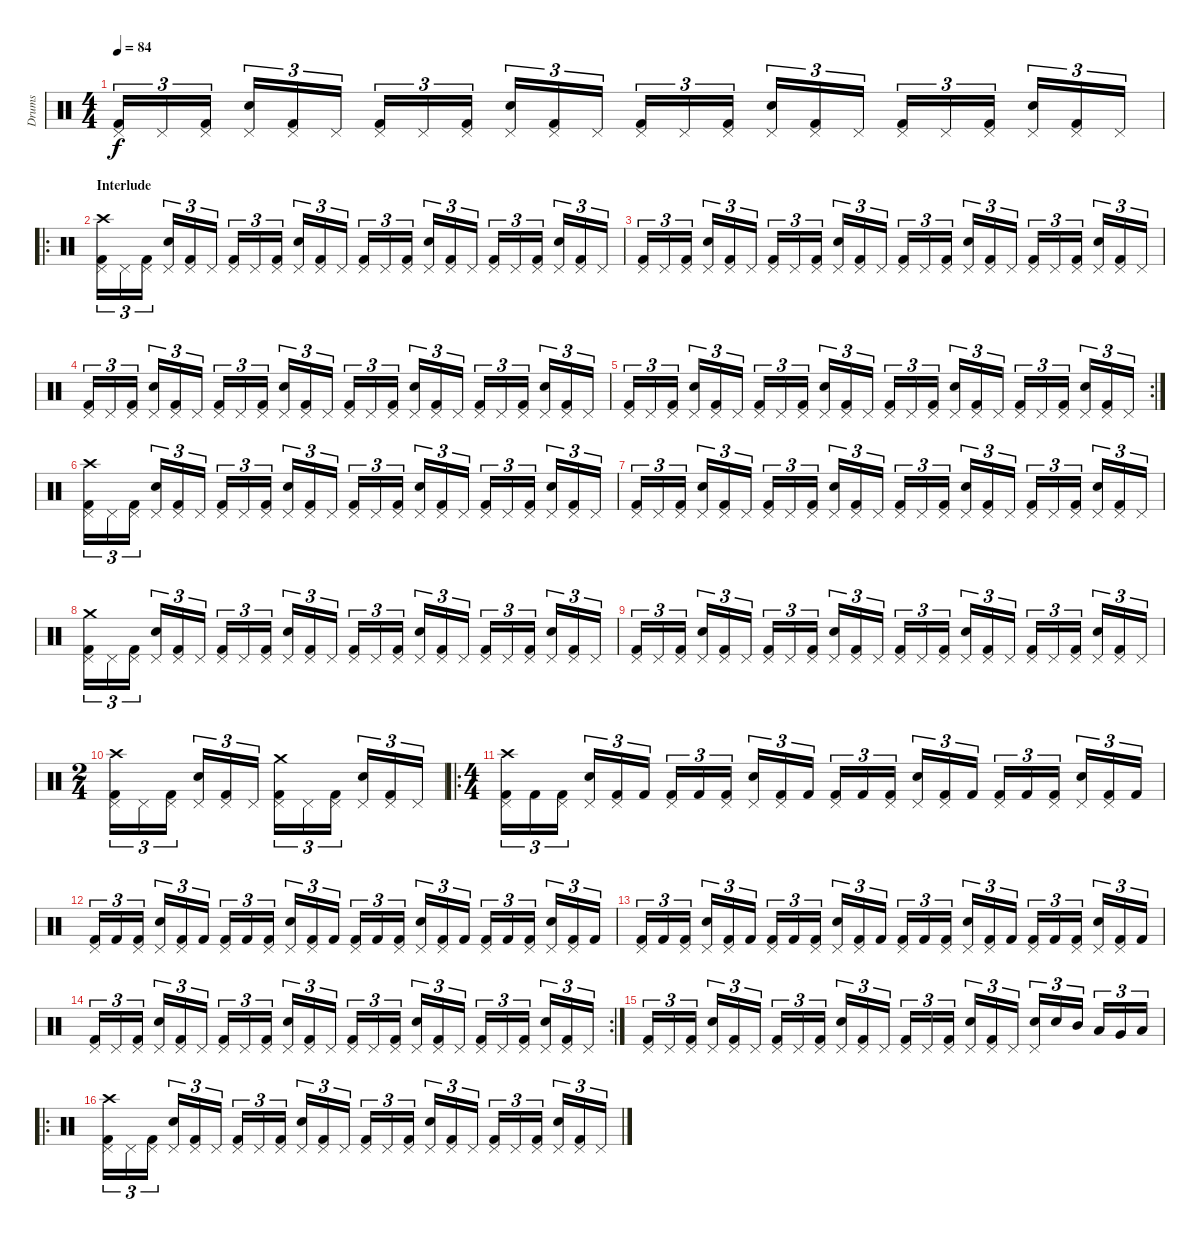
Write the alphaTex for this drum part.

\track ("Drums" "Drums") {instrument percussion}
\staff {score}
\articulation defaults
\ts (4 4)
\tempo 84
\clef neutral
\ks c
("Kick (hit) 2" "Pedal Hi-Hat (hit)").16{tu (3 2) dy f} "Pedal Hi-Hat (hit)".16{tu (3 2)} ("Kick (hit) 2" "Pedal Hi-Hat (hit)").16{tu (3 2)} ("Snare (hit) 2" "Pedal Hi-Hat (hit)").16{tu (3 2)} ("Kick (hit) 2" "Pedal Hi-Hat (hit)").16{tu (3 2)} "Pedal Hi-Hat (hit)".16{tu (3 2)} ("Kick (hit) 2" "Pedal Hi-Hat (hit)").16{tu (3 2)} "Pedal Hi-Hat (hit)".16{tu (3 2)} ("Kick (hit) 2" "Pedal Hi-Hat (hit)").16{tu (3 2)} ("Snare (hit) 2" "Pedal Hi-Hat (hit)").16{tu (3 2)} ("Kick (hit) 2" "Pedal Hi-Hat (hit)").16{tu (3 2)} "Pedal Hi-Hat (hit)".16{tu (3 2)} ("Kick (hit) 2" "Pedal Hi-Hat (hit)").16{tu (3 2)} "Pedal Hi-Hat (hit)".16{tu (3 2)} ("Kick (hit) 2" "Pedal Hi-Hat (hit)").16{tu (3 2)} ("Snare (hit) 2" "Pedal Hi-Hat (hit)").16{tu (3 2)} ("Kick (hit) 2" "Pedal Hi-Hat (hit)").16{tu (3 2)} "Pedal Hi-Hat (hit)".16{tu (3 2)} ("Kick (hit) 2" "Pedal Hi-Hat (hit)").16{tu (3 2)} "Pedal Hi-Hat (hit)".16{tu (3 2)} ("Kick (hit) 2" "Pedal Hi-Hat (hit)").16{tu (3 2)} ("Snare (hit) 2" "Pedal Hi-Hat (hit)").16{tu (3 2)} ("Kick (hit) 2" "Pedal Hi-Hat (hit)").16{tu (3 2)} "Pedal Hi-Hat (hit)".16{tu (3 2)} |
\ro
\section ("" "Interlude")
("Kick (hit) 2" "Pedal Hi-Hat (hit)" "Crash high (hit)").16{tu (3 2)} "Pedal Hi-Hat (hit)".16{tu (3 2)} ("Kick (hit) 2" "Pedal Hi-Hat (hit)").16{tu (3 2)} ("Snare (hit) 2" "Pedal Hi-Hat (hit)").16{tu (3 2)} ("Kick (hit) 2" "Pedal Hi-Hat (hit)").16{tu (3 2)} "Pedal Hi-Hat (hit)".16{tu (3 2)} ("Kick (hit) 2" "Pedal Hi-Hat (hit)").16{tu (3 2)} "Pedal Hi-Hat (hit)".16{tu (3 2)} ("Kick (hit) 2" "Pedal Hi-Hat (hit)").16{tu (3 2)} ("Snare (hit) 2" "Pedal Hi-Hat (hit)").16{tu (3 2)} ("Kick (hit) 2" "Pedal Hi-Hat (hit)").16{tu (3 2)} "Pedal Hi-Hat (hit)".16{tu (3 2)} ("Kick (hit) 2" "Pedal Hi-Hat (hit)").16{tu (3 2)} "Pedal Hi-Hat (hit)".16{tu (3 2)} ("Kick (hit) 2" "Pedal Hi-Hat (hit)").16{tu (3 2)} ("Snare (hit) 2" "Pedal Hi-Hat (hit)").16{tu (3 2)} ("Kick (hit) 2" "Pedal Hi-Hat (hit)").16{tu (3 2)} "Pedal Hi-Hat (hit)".16{tu (3 2)} ("Kick (hit) 2" "Pedal Hi-Hat (hit)").16{tu (3 2)} "Pedal Hi-Hat (hit)".16{tu (3 2)} ("Kick (hit) 2" "Pedal Hi-Hat (hit)").16{tu (3 2)} ("Snare (hit) 2" "Pedal Hi-Hat (hit)").16{tu (3 2)} ("Kick (hit) 2" "Pedal Hi-Hat (hit)").16{tu (3 2)} "Pedal Hi-Hat (hit)".16{tu (3 2)} |
("Kick (hit) 2" "Pedal Hi-Hat (hit)").16{tu (3 2)} "Pedal Hi-Hat (hit)".16{tu (3 2)} ("Kick (hit) 2" "Pedal Hi-Hat (hit)").16{tu (3 2)} ("Snare (hit) 2" "Pedal Hi-Hat (hit)").16{tu (3 2)} ("Kick (hit) 2" "Pedal Hi-Hat (hit)").16{tu (3 2)} "Pedal Hi-Hat (hit)".16{tu (3 2)} ("Kick (hit) 2" "Pedal Hi-Hat (hit)").16{tu (3 2)} "Pedal Hi-Hat (hit)".16{tu (3 2)} ("Kick (hit) 2" "Pedal Hi-Hat (hit)").16{tu (3 2)} ("Snare (hit) 2" "Pedal Hi-Hat (hit)").16{tu (3 2)} ("Kick (hit) 2" "Pedal Hi-Hat (hit)").16{tu (3 2)} "Pedal Hi-Hat (hit)".16{tu (3 2)} ("Kick (hit) 2" "Pedal Hi-Hat (hit)").16{tu (3 2)} "Pedal Hi-Hat (hit)".16{tu (3 2)} ("Kick (hit) 2" "Pedal Hi-Hat (hit)").16{tu (3 2)} ("Snare (hit) 2" "Pedal Hi-Hat (hit)").16{tu (3 2)} ("Kick (hit) 2" "Pedal Hi-Hat (hit)").16{tu (3 2)} "Pedal Hi-Hat (hit)".16{tu (3 2)} ("Kick (hit) 2" "Pedal Hi-Hat (hit)").16{tu (3 2)} "Pedal Hi-Hat (hit)".16{tu (3 2)} ("Kick (hit) 2" "Pedal Hi-Hat (hit)").16{tu (3 2)} ("Snare (hit) 2" "Pedal Hi-Hat (hit)").16{tu (3 2)} ("Kick (hit) 2" "Pedal Hi-Hat (hit)").16{tu (3 2)} "Pedal Hi-Hat (hit)".16{tu (3 2)} |
("Kick (hit) 2" "Pedal Hi-Hat (hit)").16{tu (3 2)} "Pedal Hi-Hat (hit)".16{tu (3 2)} ("Kick (hit) 2" "Pedal Hi-Hat (hit)").16{tu (3 2)} ("Snare (hit) 2" "Pedal Hi-Hat (hit)").16{tu (3 2)} ("Kick (hit) 2" "Pedal Hi-Hat (hit)").16{tu (3 2)} "Pedal Hi-Hat (hit)".16{tu (3 2)} ("Kick (hit) 2" "Pedal Hi-Hat (hit)").16{tu (3 2)} "Pedal Hi-Hat (hit)".16{tu (3 2)} ("Kick (hit) 2" "Pedal Hi-Hat (hit)").16{tu (3 2)} ("Snare (hit) 2" "Pedal Hi-Hat (hit)").16{tu (3 2)} ("Kick (hit) 2" "Pedal Hi-Hat (hit)").16{tu (3 2)} "Pedal Hi-Hat (hit)".16{tu (3 2)} ("Kick (hit) 2" "Pedal Hi-Hat (hit)").16{tu (3 2)} "Pedal Hi-Hat (hit)".16{tu (3 2)} ("Kick (hit) 2" "Pedal Hi-Hat (hit)").16{tu (3 2)} ("Snare (hit) 2" "Pedal Hi-Hat (hit)").16{tu (3 2)} ("Kick (hit) 2" "Pedal Hi-Hat (hit)").16{tu (3 2)} "Pedal Hi-Hat (hit)".16{tu (3 2)} ("Kick (hit) 2" "Pedal Hi-Hat (hit)").16{tu (3 2)} "Pedal Hi-Hat (hit)".16{tu (3 2)} ("Kick (hit) 2" "Pedal Hi-Hat (hit)").16{tu (3 2)} ("Snare (hit) 2" "Pedal Hi-Hat (hit)").16{tu (3 2)} ("Kick (hit) 2" "Pedal Hi-Hat (hit)").16{tu (3 2)} "Pedal Hi-Hat (hit)".16{tu (3 2)} |
\rc 2
("Kick (hit) 2" "Pedal Hi-Hat (hit)").16{tu (3 2)} "Pedal Hi-Hat (hit)".16{tu (3 2)} ("Kick (hit) 2" "Pedal Hi-Hat (hit)").16{tu (3 2)} ("Snare (hit) 2" "Pedal Hi-Hat (hit)").16{tu (3 2)} ("Kick (hit) 2" "Pedal Hi-Hat (hit)").16{tu (3 2)} "Pedal Hi-Hat (hit)".16{tu (3 2)} ("Kick (hit) 2" "Pedal Hi-Hat (hit)").16{tu (3 2)} "Pedal Hi-Hat (hit)".16{tu (3 2)} ("Kick (hit) 2" "Pedal Hi-Hat (hit)").16{tu (3 2)} ("Snare (hit) 2" "Pedal Hi-Hat (hit)").16{tu (3 2)} ("Kick (hit) 2" "Pedal Hi-Hat (hit)").16{tu (3 2)} "Pedal Hi-Hat (hit)".16{tu (3 2)} ("Kick (hit) 2" "Pedal Hi-Hat (hit)").16{tu (3 2)} "Pedal Hi-Hat (hit)".16{tu (3 2)} ("Kick (hit) 2" "Pedal Hi-Hat (hit)").16{tu (3 2)} ("Snare (hit) 2" "Pedal Hi-Hat (hit)").16{tu (3 2)} ("Kick (hit) 2" "Pedal Hi-Hat (hit)").16{tu (3 2)} "Pedal Hi-Hat (hit)".16{tu (3 2)} ("Kick (hit) 2" "Pedal Hi-Hat (hit)").16{tu (3 2)} "Pedal Hi-Hat (hit)".16{tu (3 2)} ("Kick (hit) 2" "Pedal Hi-Hat (hit)").16{tu (3 2)} ("Snare (hit) 2" "Pedal Hi-Hat (hit)").16{tu (3 2)} ("Kick (hit) 2" "Pedal Hi-Hat (hit)").16{tu (3 2)} "Pedal Hi-Hat (hit)".16{tu (3 2)} |
("Kick (hit) 2" "Pedal Hi-Hat (hit)" "Crash high (hit)").16{tu (3 2)} "Pedal Hi-Hat (hit)".16{tu (3 2)} ("Kick (hit) 2" "Pedal Hi-Hat (hit)").16{tu (3 2)} ("Snare (hit) 2" "Pedal Hi-Hat (hit)").16{tu (3 2)} ("Kick (hit) 2" "Pedal Hi-Hat (hit)").16{tu (3 2)} "Pedal Hi-Hat (hit)".16{tu (3 2)} ("Kick (hit) 2" "Pedal Hi-Hat (hit)").16{tu (3 2)} "Pedal Hi-Hat (hit)".16{tu (3 2)} ("Kick (hit) 2" "Pedal Hi-Hat (hit)").16{tu (3 2)} ("Snare (hit) 2" "Pedal Hi-Hat (hit)").16{tu (3 2)} ("Kick (hit) 2" "Pedal Hi-Hat (hit)").16{tu (3 2)} "Pedal Hi-Hat (hit)".16{tu (3 2)} ("Kick (hit) 2" "Pedal Hi-Hat (hit)").16{tu (3 2)} "Pedal Hi-Hat (hit)".16{tu (3 2)} ("Kick (hit) 2" "Pedal Hi-Hat (hit)").16{tu (3 2)} ("Snare (hit) 2" "Pedal Hi-Hat (hit)").16{tu (3 2)} ("Kick (hit) 2" "Pedal Hi-Hat (hit)").16{tu (3 2)} "Pedal Hi-Hat (hit)".16{tu (3 2)} ("Kick (hit) 2" "Pedal Hi-Hat (hit)").16{tu (3 2)} "Pedal Hi-Hat (hit)".16{tu (3 2)} ("Kick (hit) 2" "Pedal Hi-Hat (hit)").16{tu (3 2)} ("Snare (hit) 2" "Pedal Hi-Hat (hit)").16{tu (3 2)} ("Kick (hit) 2" "Pedal Hi-Hat (hit)").16{tu (3 2)} "Pedal Hi-Hat (hit)".16{tu (3 2)} |
("Kick (hit) 2" "Pedal Hi-Hat (hit)").16{tu (3 2)} "Pedal Hi-Hat (hit)".16{tu (3 2)} ("Kick (hit) 2" "Pedal Hi-Hat (hit)").16{tu (3 2)} ("Snare (hit) 2" "Pedal Hi-Hat (hit)").16{tu (3 2)} ("Kick (hit) 2" "Pedal Hi-Hat (hit)").16{tu (3 2)} "Pedal Hi-Hat (hit)".16{tu (3 2)} ("Kick (hit) 2" "Pedal Hi-Hat (hit)").16{tu (3 2)} "Pedal Hi-Hat (hit)".16{tu (3 2)} ("Kick (hit) 2" "Pedal Hi-Hat (hit)").16{tu (3 2)} ("Snare (hit) 2" "Pedal Hi-Hat (hit)").16{tu (3 2)} ("Kick (hit) 2" "Pedal Hi-Hat (hit)").16{tu (3 2)} "Pedal Hi-Hat (hit)".16{tu (3 2)} ("Kick (hit) 2" "Pedal Hi-Hat (hit)").16{tu (3 2)} "Pedal Hi-Hat (hit)".16{tu (3 2)} ("Kick (hit) 2" "Pedal Hi-Hat (hit)").16{tu (3 2)} ("Snare (hit) 2" "Pedal Hi-Hat (hit)").16{tu (3 2)} ("Kick (hit) 2" "Pedal Hi-Hat (hit)").16{tu (3 2)} "Pedal Hi-Hat (hit)".16{tu (3 2)} ("Kick (hit) 2" "Pedal Hi-Hat (hit)").16{tu (3 2)} "Pedal Hi-Hat (hit)".16{tu (3 2)} ("Kick (hit) 2" "Pedal Hi-Hat (hit)").16{tu (3 2)} ("Snare (hit) 2" "Pedal Hi-Hat (hit)").16{tu (3 2)} ("Kick (hit) 2" "Pedal Hi-Hat (hit)").16{tu (3 2)} "Pedal Hi-Hat (hit)".16{tu (3 2)} |
("Kick (hit) 2" "Pedal Hi-Hat (hit)" "Crash medium (hit)").16{tu (3 2)} "Pedal Hi-Hat (hit)".16{tu (3 2)} ("Kick (hit) 2" "Pedal Hi-Hat (hit)").16{tu (3 2)} ("Snare (hit) 2" "Pedal Hi-Hat (hit)").16{tu (3 2)} ("Kick (hit) 2" "Pedal Hi-Hat (hit)").16{tu (3 2)} "Pedal Hi-Hat (hit)".16{tu (3 2)} ("Kick (hit) 2" "Pedal Hi-Hat (hit)").16{tu (3 2)} "Pedal Hi-Hat (hit)".16{tu (3 2)} ("Kick (hit) 2" "Pedal Hi-Hat (hit)").16{tu (3 2)} ("Snare (hit) 2" "Pedal Hi-Hat (hit)").16{tu (3 2)} ("Kick (hit) 2" "Pedal Hi-Hat (hit)").16{tu (3 2)} "Pedal Hi-Hat (hit)".16{tu (3 2)} ("Kick (hit) 2" "Pedal Hi-Hat (hit)").16{tu (3 2)} "Pedal Hi-Hat (hit)".16{tu (3 2)} ("Kick (hit) 2" "Pedal Hi-Hat (hit)").16{tu (3 2)} ("Snare (hit) 2" "Pedal Hi-Hat (hit)").16{tu (3 2)} ("Kick (hit) 2" "Pedal Hi-Hat (hit)").16{tu (3 2)} "Pedal Hi-Hat (hit)".16{tu (3 2)} ("Kick (hit) 2" "Pedal Hi-Hat (hit)").16{tu (3 2)} "Pedal Hi-Hat (hit)".16{tu (3 2)} ("Kick (hit) 2" "Pedal Hi-Hat (hit)").16{tu (3 2)} ("Snare (hit) 2" "Pedal Hi-Hat (hit)").16{tu (3 2)} ("Kick (hit) 2" "Pedal Hi-Hat (hit)").16{tu (3 2)} "Pedal Hi-Hat (hit)".16{tu (3 2)} |
("Kick (hit) 2" "Pedal Hi-Hat (hit)").16{tu (3 2)} "Pedal Hi-Hat (hit)".16{tu (3 2)} ("Kick (hit) 2" "Pedal Hi-Hat (hit)").16{tu (3 2)} ("Snare (hit) 2" "Pedal Hi-Hat (hit)").16{tu (3 2)} ("Kick (hit) 2" "Pedal Hi-Hat (hit)").16{tu (3 2)} "Pedal Hi-Hat (hit)".16{tu (3 2)} ("Kick (hit) 2" "Pedal Hi-Hat (hit)").16{tu (3 2)} "Pedal Hi-Hat (hit)".16{tu (3 2)} ("Kick (hit) 2" "Pedal Hi-Hat (hit)").16{tu (3 2)} ("Snare (hit) 2" "Pedal Hi-Hat (hit)").16{tu (3 2)} ("Kick (hit) 2" "Pedal Hi-Hat (hit)").16{tu (3 2)} "Pedal Hi-Hat (hit)".16{tu (3 2)} ("Kick (hit) 2" "Pedal Hi-Hat (hit)").16{tu (3 2)} "Pedal Hi-Hat (hit)".16{tu (3 2)} ("Kick (hit) 2" "Pedal Hi-Hat (hit)").16{tu (3 2)} ("Snare (hit) 2" "Pedal Hi-Hat (hit)").16{tu (3 2)} ("Kick (hit) 2" "Pedal Hi-Hat (hit)").16{tu (3 2)} "Pedal Hi-Hat (hit)".16{tu (3 2)} ("Kick (hit) 2" "Pedal Hi-Hat (hit)").16{tu (3 2)} "Pedal Hi-Hat (hit)".16{tu (3 2)} ("Kick (hit) 2" "Pedal Hi-Hat (hit)").16{tu (3 2)} ("Snare (hit) 2" "Pedal Hi-Hat (hit)").16{tu (3 2)} ("Kick (hit) 2" "Pedal Hi-Hat (hit)").16{tu (3 2)} "Pedal Hi-Hat (hit)".16{tu (3 2)} |
\ts (2 4)
("Kick (hit) 2" "Pedal Hi-Hat (hit)" "Crash high (hit)").16{tu (3 2)} "Pedal Hi-Hat (hit)".16{tu (3 2)} ("Kick (hit) 2" "Pedal Hi-Hat (hit)").16{tu (3 2)} ("Snare (hit) 2" "Pedal Hi-Hat (hit)").16{tu (3 2)} ("Kick (hit) 2" "Pedal Hi-Hat (hit)").16{tu (3 2)} "Pedal Hi-Hat (hit)".16{tu (3 2)} ("Kick (hit) 2" "Pedal Hi-Hat (hit)" "Crash medium (hit)").16{tu (3 2)} "Pedal Hi-Hat (hit)".16{tu (3 2)} ("Kick (hit) 2" "Pedal Hi-Hat (hit)").16{tu (3 2)} ("Snare (hit) 2" "Pedal Hi-Hat (hit)").16{tu (3 2)} ("Kick (hit) 2" "Pedal Hi-Hat (hit)").16{tu (3 2)} "Pedal Hi-Hat (hit)".16{tu (3 2)} |
\ro
\ts (4 4)
("Kick (hit) 2" "Pedal Hi-Hat (hit)" "Crash high (hit)").16{tu (3 2)} "Kick (hit) 2".16{tu (3 2)} ("Kick (hit) 2" "Pedal Hi-Hat (hit)").16{tu (3 2)} ("Snare (hit) 2" "Pedal Hi-Hat (hit)").16{tu (3 2)} ("Kick (hit) 2" "Pedal Hi-Hat (hit)").16{tu (3 2)} "Kick (hit) 2".16{tu (3 2)} ("Kick (hit) 2" "Pedal Hi-Hat (hit)").16{tu (3 2)} "Kick (hit) 2".16{tu (3 2)} ("Kick (hit) 2" "Pedal Hi-Hat (hit)").16{tu (3 2)} ("Snare (hit) 2" "Pedal Hi-Hat (hit)").16{tu (3 2)} ("Kick (hit) 2" "Pedal Hi-Hat (hit)").16{tu (3 2)} "Kick (hit) 2".16{tu (3 2)} ("Kick (hit) 2" "Pedal Hi-Hat (hit)").16{tu (3 2)} "Kick (hit) 2".16{tu (3 2)} ("Kick (hit) 2" "Pedal Hi-Hat (hit)").16{tu (3 2)} ("Snare (hit) 2" "Pedal Hi-Hat (hit)").16{tu (3 2)} ("Kick (hit) 2" "Pedal Hi-Hat (hit)").16{tu (3 2)} "Kick (hit) 2".16{tu (3 2)} ("Kick (hit) 2" "Pedal Hi-Hat (hit)").16{tu (3 2)} "Kick (hit) 2".16{tu (3 2)} ("Kick (hit) 2" "Pedal Hi-Hat (hit)").16{tu (3 2)} ("Snare (hit) 2" "Pedal Hi-Hat (hit)").16{tu (3 2)} ("Kick (hit) 2" "Pedal Hi-Hat (hit)").16{tu (3 2)} "Kick (hit) 2".16{tu (3 2)} |
("Kick (hit) 2" "Pedal Hi-Hat (hit)").16{tu (3 2)} "Kick (hit) 2".16{tu (3 2)} ("Kick (hit) 2" "Pedal Hi-Hat (hit)").16{tu (3 2)} ("Snare (hit) 2" "Pedal Hi-Hat (hit)").16{tu (3 2)} ("Kick (hit) 2" "Pedal Hi-Hat (hit)").16{tu (3 2)} "Kick (hit) 2".16{tu (3 2)} ("Kick (hit) 2" "Pedal Hi-Hat (hit)").16{tu (3 2)} "Kick (hit) 2".16{tu (3 2)} ("Kick (hit) 2" "Pedal Hi-Hat (hit)").16{tu (3 2)} ("Snare (hit) 2" "Pedal Hi-Hat (hit)").16{tu (3 2)} ("Kick (hit) 2" "Pedal Hi-Hat (hit)").16{tu (3 2)} "Kick (hit) 2".16{tu (3 2)} ("Kick (hit) 2" "Pedal Hi-Hat (hit)").16{tu (3 2)} "Kick (hit) 2".16{tu (3 2)} ("Kick (hit) 2" "Pedal Hi-Hat (hit)").16{tu (3 2)} ("Snare (hit) 2" "Pedal Hi-Hat (hit)").16{tu (3 2)} ("Kick (hit) 2" "Pedal Hi-Hat (hit)").16{tu (3 2)} "Kick (hit) 2".16{tu (3 2)} ("Kick (hit) 2" "Pedal Hi-Hat (hit)").16{tu (3 2)} "Kick (hit) 2".16{tu (3 2)} ("Kick (hit) 2" "Pedal Hi-Hat (hit)").16{tu (3 2)} ("Snare (hit) 2" "Pedal Hi-Hat (hit)").16{tu (3 2)} ("Kick (hit) 2" "Pedal Hi-Hat (hit)").16{tu (3 2)} "Kick (hit) 2".16{tu (3 2)} |
("Kick (hit) 2" "Pedal Hi-Hat (hit)").16{tu (3 2)} "Kick (hit) 2".16{tu (3 2)} ("Kick (hit) 2" "Pedal Hi-Hat (hit)").16{tu (3 2)} ("Snare (hit) 2" "Pedal Hi-Hat (hit)").16{tu (3 2)} ("Kick (hit) 2" "Pedal Hi-Hat (hit)").16{tu (3 2)} "Kick (hit) 2".16{tu (3 2)} ("Kick (hit) 2" "Pedal Hi-Hat (hit)").16{tu (3 2)} "Kick (hit) 2".16{tu (3 2)} ("Kick (hit) 2" "Pedal Hi-Hat (hit)").16{tu (3 2)} ("Snare (hit) 2" "Pedal Hi-Hat (hit)").16{tu (3 2)} ("Kick (hit) 2" "Pedal Hi-Hat (hit)").16{tu (3 2)} "Kick (hit) 2".16{tu (3 2)} ("Kick (hit) 2" "Pedal Hi-Hat (hit)").16{tu (3 2)} "Kick (hit) 2".16{tu (3 2)} ("Kick (hit) 2" "Pedal Hi-Hat (hit)").16{tu (3 2)} ("Snare (hit) 2" "Pedal Hi-Hat (hit)").16{tu (3 2)} ("Kick (hit) 2" "Pedal Hi-Hat (hit)").16{tu (3 2)} "Kick (hit) 2".16{tu (3 2)} ("Kick (hit) 2" "Pedal Hi-Hat (hit)").16{tu (3 2)} "Kick (hit) 2".16{tu (3 2)} ("Kick (hit) 2" "Pedal Hi-Hat (hit)").16{tu (3 2)} ("Snare (hit) 2" "Pedal Hi-Hat (hit)").16{tu (3 2)} ("Kick (hit) 2" "Pedal Hi-Hat (hit)").16{tu (3 2)} "Kick (hit) 2".16{tu (3 2)} |
\rc 2
("Kick (hit) 2" "Pedal Hi-Hat (hit)").16{tu (3 2)} "Pedal Hi-Hat (hit)".16{tu (3 2)} ("Kick (hit) 2" "Pedal Hi-Hat (hit)").16{tu (3 2)} ("Snare (hit) 2" "Pedal Hi-Hat (hit)").16{tu (3 2)} ("Kick (hit) 2" "Pedal Hi-Hat (hit)").16{tu (3 2)} "Pedal Hi-Hat (hit)".16{tu (3 2)} ("Kick (hit) 2" "Pedal Hi-Hat (hit)").16{tu (3 2)} "Pedal Hi-Hat (hit)".16{tu (3 2)} ("Kick (hit) 2" "Pedal Hi-Hat (hit)").16{tu (3 2)} ("Snare (hit) 2" "Pedal Hi-Hat (hit)").16{tu (3 2)} ("Kick (hit) 2" "Pedal Hi-Hat (hit)").16{tu (3 2)} "Pedal Hi-Hat (hit)".16{tu (3 2)} ("Kick (hit) 2" "Pedal Hi-Hat (hit)").16{tu (3 2)} "Pedal Hi-Hat (hit)".16{tu (3 2)} ("Kick (hit) 2" "Pedal Hi-Hat (hit)").16{tu (3 2)} ("Snare (hit) 2" "Pedal Hi-Hat (hit)").16{tu (3 2)} ("Kick (hit) 2" "Pedal Hi-Hat (hit)").16{tu (3 2)} "Pedal Hi-Hat (hit)".16{tu (3 2)} ("Kick (hit) 2" "Pedal Hi-Hat (hit)").16{tu (3 2)} "Pedal Hi-Hat (hit)".16{tu (3 2)} ("Kick (hit) 2" "Pedal Hi-Hat (hit)").16{tu (3 2)} ("Snare (hit) 2" "Pedal Hi-Hat (hit)").16{tu (3 2)} ("Kick (hit) 2" "Pedal Hi-Hat (hit)").16{tu (3 2)} "Pedal Hi-Hat (hit)".16{tu (3 2)} |
("Kick (hit) 2" "Pedal Hi-Hat (hit)").16{tu (3 2)} "Pedal Hi-Hat (hit)".16{tu (3 2)} ("Kick (hit) 2" "Pedal Hi-Hat (hit)").16{tu (3 2)} ("Snare (hit) 2" "Pedal Hi-Hat (hit)").16{tu (3 2)} ("Kick (hit) 2" "Pedal Hi-Hat (hit)").16{tu (3 2)} "Pedal Hi-Hat (hit)".16{tu (3 2)} ("Kick (hit) 2" "Pedal Hi-Hat (hit)").16{tu (3 2)} "Pedal Hi-Hat (hit)".16{tu (3 2)} ("Kick (hit) 2" "Pedal Hi-Hat (hit)").16{tu (3 2)} ("Snare (hit) 2" "Pedal Hi-Hat (hit)").16{tu (3 2)} ("Kick (hit) 2" "Pedal Hi-Hat (hit)").16{tu (3 2)} "Pedal Hi-Hat (hit)".16{tu (3 2)} ("Kick (hit) 2" "Pedal Hi-Hat (hit)").16{tu (3 2)} "Pedal Hi-Hat (hit)".16{tu (3 2)} ("Kick (hit) 2" "Pedal Hi-Hat (hit)").16{tu (3 2)} ("Snare (hit) 2" "Pedal Hi-Hat (hit)").16{tu (3 2)} ("Kick (hit) 2" "Pedal Hi-Hat (hit)").16{tu (3 2)} "Pedal Hi-Hat (hit)".16{tu (3 2)} ("Snare (hit) 2" "Pedal Hi-Hat (hit)").16{tu (3 2)} "Snare (hit) 2".16{tu (3 2)} "Mid Tom (hit)".16{tu (3 2)} "Low Tom (hit)".16{tu (3 2)} "Very Low Tom (hit)".16{tu (3 2)} "Low Floor Tom (hit)".16{tu (3 2)} |
\ro
("Kick (hit) 2" "Pedal Hi-Hat (hit)" "Crash high (hit)").16{tu (3 2)} "Pedal Hi-Hat (hit)".16{tu (3 2)} ("Kick (hit) 2" "Pedal Hi-Hat (hit)").16{tu (3 2)} ("Snare (hit) 2" "Pedal Hi-Hat (hit)").16{tu (3 2)} ("Kick (hit) 2" "Pedal Hi-Hat (hit)").16{tu (3 2)} "Pedal Hi-Hat (hit)".16{tu (3 2)} ("Kick (hit) 2" "Pedal Hi-Hat (hit)").16{tu (3 2)} "Pedal Hi-Hat (hit)".16{tu (3 2)} ("Kick (hit) 2" "Pedal Hi-Hat (hit)").16{tu (3 2)} ("Snare (hit) 2" "Pedal Hi-Hat (hit)").16{tu (3 2)} ("Kick (hit) 2" "Pedal Hi-Hat (hit)").16{tu (3 2)} "Pedal Hi-Hat (hit)".16{tu (3 2)} ("Kick (hit) 2" "Pedal Hi-Hat (hit)").16{tu (3 2)} "Pedal Hi-Hat (hit)".16{tu (3 2)} ("Kick (hit) 2" "Pedal Hi-Hat (hit)").16{tu (3 2)} ("Snare (hit) 2" "Pedal Hi-Hat (hit)").16{tu (3 2)} ("Kick (hit) 2" "Pedal Hi-Hat (hit)").16{tu (3 2)} "Pedal Hi-Hat (hit)".16{tu (3 2)} ("Kick (hit) 2" "Pedal Hi-Hat (hit)").16{tu (3 2)} "Pedal Hi-Hat (hit)".16{tu (3 2)} ("Kick (hit) 2" "Pedal Hi-Hat (hit)").16{tu (3 2)} ("Snare (hit) 2" "Pedal Hi-Hat (hit)").16{tu (3 2)} ("Kick (hit) 2" "Pedal Hi-Hat (hit)").16{tu (3 2)} "Pedal Hi-Hat (hit)".16{tu (3 2)}
